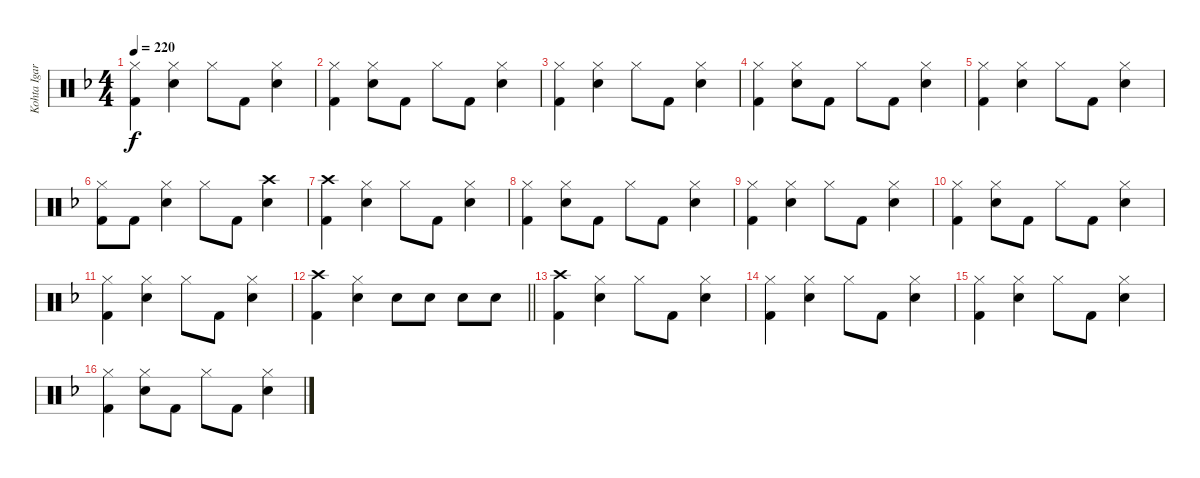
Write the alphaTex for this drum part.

\track ("Kohta Igarashi" "Kohta Igar") {instrument percussion}
\staff {score}
\articulation defaults
\ts (4 4)
\tempo 220
\clef neutral
\ks f
("Hi-Hat (closed)" "Kick (hit) 2").4{dy f} ("Hi-Hat (closed)" "Electric Snare (hit)").4 "Hi-Hat (closed)".8 "Kick (hit) 2".8 ("Hi-Hat (closed)" "Electric Snare (hit)").4 |
("Hi-Hat (closed)" "Kick (hit) 2").4 ("Hi-Hat (closed)" "Electric Snare (hit)").8 "Kick (hit) 2".8 "Hi-Hat (closed)".8 "Kick (hit) 2".8 ("Hi-Hat (closed)" "Electric Snare (hit)").4 |
("Hi-Hat (closed)" "Kick (hit) 2").4 ("Hi-Hat (closed)" "Electric Snare (hit)").4 "Hi-Hat (closed)".8 "Kick (hit) 2".8 ("Hi-Hat (closed)" "Electric Snare (hit)").4 |
("Hi-Hat (closed)" "Kick (hit) 2").4 ("Hi-Hat (closed)" "Electric Snare (hit)").8 "Kick (hit) 2".8 "Hi-Hat (closed)".8 "Kick (hit) 2".8 ("Hi-Hat (closed)" "Electric Snare (hit)").4 |
("Hi-Hat (closed)" "Kick (hit) 2").4 ("Hi-Hat (closed)" "Electric Snare (hit)").4 "Hi-Hat (closed)".8 "Kick (hit) 2".8 ("Hi-Hat (closed)" "Electric Snare (hit)").4 |
("Hi-Hat (closed)" "Kick (hit) 2").8 "Kick (hit) 2".8 ("Hi-Hat (closed)" "Electric Snare (hit)").4 "Hi-Hat (closed)".8 "Kick (hit) 2".8 ("Crash high (hit)" "Electric Snare (hit)").4 |
("Crash high (hit)" "Kick (hit) 2").4 ("Hi-Hat (closed)" "Electric Snare (hit)").4 "Hi-Hat (closed)".8 "Kick (hit) 2".8 ("Hi-Hat (closed)" "Electric Snare (hit)").4 |
("Hi-Hat (closed)" "Kick (hit) 2").4 ("Hi-Hat (closed)" "Electric Snare (hit)").8 "Kick (hit) 2".8 "Hi-Hat (closed)".8 "Kick (hit) 2".8 ("Hi-Hat (closed)" "Electric Snare (hit)").4 |
("Hi-Hat (closed)" "Kick (hit) 2").4 ("Hi-Hat (closed)" "Electric Snare (hit)").4 "Hi-Hat (closed)".8 "Kick (hit) 2".8 ("Hi-Hat (closed)" "Electric Snare (hit)").4 |
("Hi-Hat (closed)" "Kick (hit) 2").4 ("Hi-Hat (closed)" "Electric Snare (hit)").8 "Kick (hit) 2".8 "Hi-Hat (closed)".8 "Kick (hit) 2".8 ("Hi-Hat (closed)" "Electric Snare (hit)").4 |
("Hi-Hat (closed)" "Kick (hit) 2").4 ("Hi-Hat (closed)" "Electric Snare (hit)").4 "Hi-Hat (closed)".8 "Kick (hit) 2".8 ("Hi-Hat (closed)" "Electric Snare (hit)").4 |
\barLineRight lightlight
("Crash high (hit)" "Kick (hit) 2").4 ("Hi-Hat (closed)" "Electric Snare (hit)").4 "Electric Snare (hit)".8 "Electric Snare (hit)".8 "Electric Snare (hit)".8 "Electric Snare (hit)".8 |
("Crash high (hit)" "Kick (hit) 2").4 ("Hi-Hat (closed)" "Electric Snare (hit)").4 "Hi-Hat (closed)".8 "Kick (hit) 2".8 ("Hi-Hat (closed)" "Electric Snare (hit)").4 |
("Hi-Hat (closed)" "Kick (hit) 2").4 ("Hi-Hat (closed)" "Electric Snare (hit)").4 "Hi-Hat (closed)".8 "Kick (hit) 2".8 ("Hi-Hat (closed)" "Electric Snare (hit)").4 |
("Hi-Hat (closed)" "Kick (hit) 2").4 ("Hi-Hat (closed)" "Electric Snare (hit)").4 "Hi-Hat (closed)".8 "Kick (hit) 2".8 ("Hi-Hat (closed)" "Electric Snare (hit)").4 |
("Hi-Hat (closed)" "Kick (hit) 2").4 ("Hi-Hat (closed)" "Electric Snare (hit)").8 "Kick (hit) 2".8 "Hi-Hat (closed)".8 "Kick (hit) 2".8 ("Hi-Hat (closed)" "Electric Snare (hit)").4
